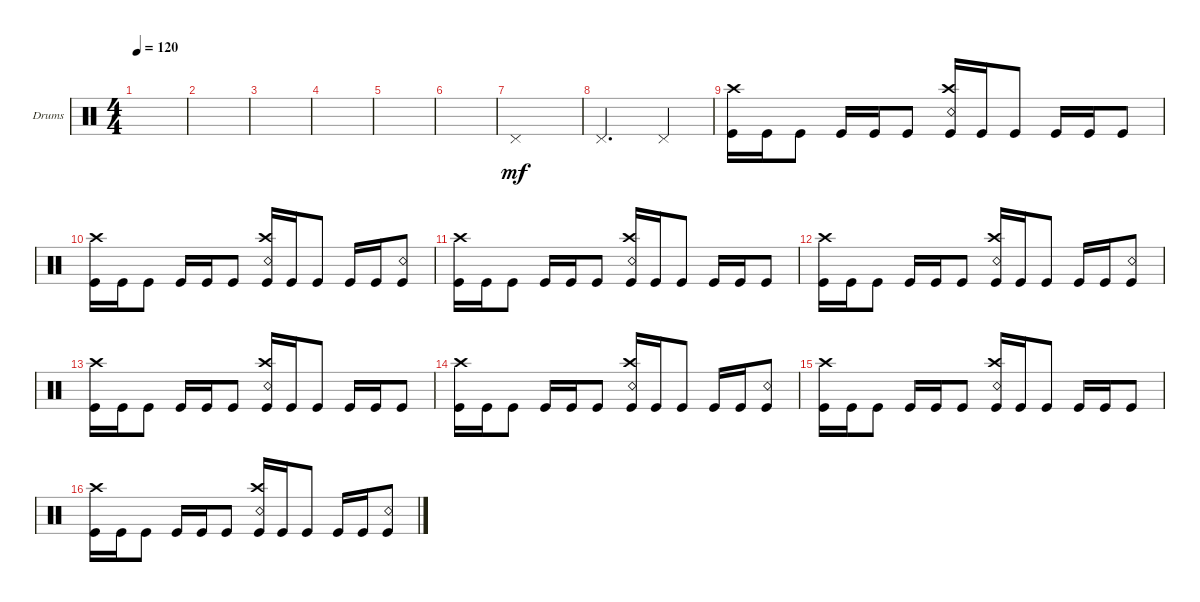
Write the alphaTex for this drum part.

\bracketExtendMode groupsimilarinstruments
\firstSystemTrackNameOrientation horizontal
\otherSystemsTrackNameOrientation horizontal
\track ("Kaleb - Drums" "Drums") {instrument percussion}
\staff {score}
\articulation defaults
\ts (4 4)
\tempo 120
\clef neutral
\ks c
|
|
|
|
|
|
"Pedal Hi-Hat (hit)".1{dy mf} |
"Pedal Hi-Hat (hit)".2{d} "Pedal Hi-Hat (hit)".4 |
("Kick (hit)" "Crash high (hit)").16 "Kick (hit)".16 "Kick (hit)".8 "Kick (hit)".16 "Kick (hit)".16 "Kick (hit)".8 ("Kick (hit)" "Crash high (hit)" "Snare (rim shot)").16 "Kick (hit)".16 "Kick (hit)".8 "Kick (hit)".16 "Kick (hit)".16 "Kick (hit)".8 |
("Kick (hit)" "Crash high (hit)").16 "Kick (hit)".16 "Kick (hit)".8 "Kick (hit)".16 "Kick (hit)".16 "Kick (hit)".8 ("Kick (hit)" "Crash high (hit)" "Snare (rim shot)").16 "Kick (hit)".16 "Kick (hit)".8 "Kick (hit)".16 "Kick (hit)".16 ("Kick (hit)" "Snare (rim shot)").8 |
("Kick (hit)" "Crash high (hit)").16 "Kick (hit)".16 "Kick (hit)".8 "Kick (hit)".16 "Kick (hit)".16 "Kick (hit)".8 ("Kick (hit)" "Crash high (hit)" "Snare (rim shot)").16 "Kick (hit)".16 "Kick (hit)".8 "Kick (hit)".16 "Kick (hit)".16 "Kick (hit)".8 |
("Kick (hit)" "Crash high (hit)").16 "Kick (hit)".16 "Kick (hit)".8 "Kick (hit)".16 "Kick (hit)".16 "Kick (hit)".8 ("Kick (hit)" "Crash high (hit)" "Snare (rim shot)").16 "Kick (hit)".16 "Kick (hit)".8 "Kick (hit)".16 "Kick (hit)".16 ("Kick (hit)" "Snare (rim shot)").8 |
("Kick (hit)" "Crash high (hit)").16 "Kick (hit)".16 "Kick (hit)".8 "Kick (hit)".16 "Kick (hit)".16 "Kick (hit)".8 ("Kick (hit)" "Crash high (hit)" "Snare (rim shot)").16 "Kick (hit)".16 "Kick (hit)".8 "Kick (hit)".16 "Kick (hit)".16 "Kick (hit)".8 |
("Kick (hit)" "Crash high (hit)").16 "Kick (hit)".16 "Kick (hit)".8 "Kick (hit)".16 "Kick (hit)".16 "Kick (hit)".8 ("Kick (hit)" "Crash high (hit)" "Snare (rim shot)").16 "Kick (hit)".16 "Kick (hit)".8 "Kick (hit)".16 "Kick (hit)".16 ("Kick (hit)" "Snare (rim shot)").8 |
("Kick (hit)" "Crash high (hit)").16 "Kick (hit)".16 "Kick (hit)".8 "Kick (hit)".16 "Kick (hit)".16 "Kick (hit)".8 ("Kick (hit)" "Crash high (hit)" "Snare (rim shot)").16 "Kick (hit)".16 "Kick (hit)".8 "Kick (hit)".16 "Kick (hit)".16 "Kick (hit)".8 |
("Kick (hit)" "Crash high (hit)").16 "Kick (hit)".16 "Kick (hit)".8 "Kick (hit)".16 "Kick (hit)".16 "Kick (hit)".8 ("Kick (hit)" "Crash high (hit)" "Snare (rim shot)").16 "Kick (hit)".16 "Kick (hit)".8 "Kick (hit)".16 "Kick (hit)".16 ("Kick (hit)" "Snare (rim shot)").8
